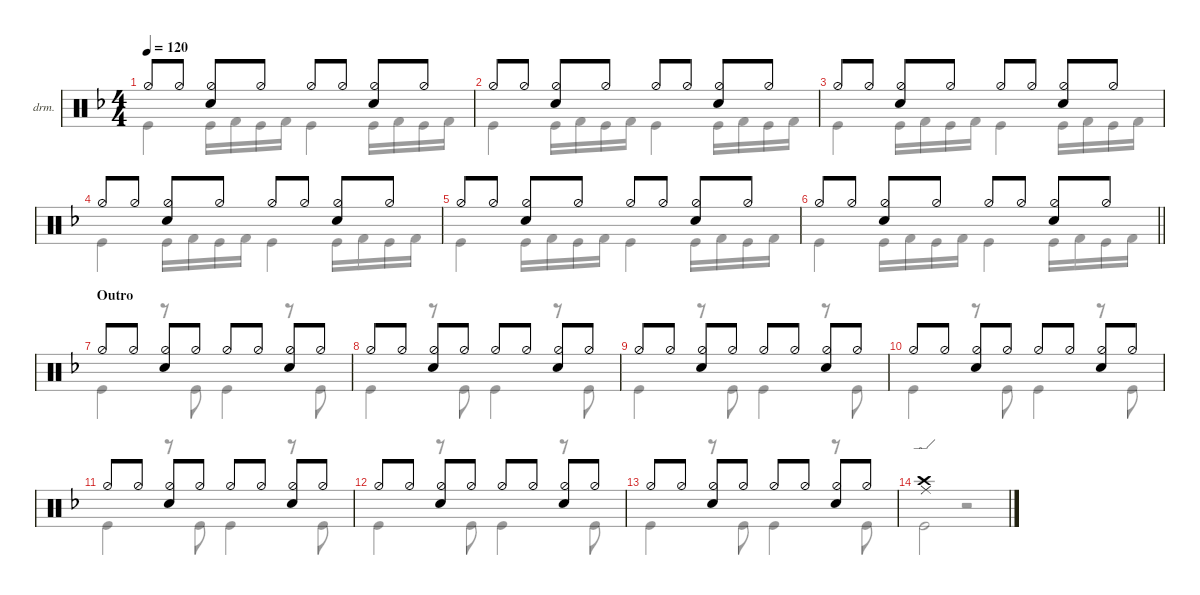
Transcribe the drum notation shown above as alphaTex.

\defaultSystemsLayout 4
\hideDynamics
\bracketExtendMode nobrackets
\firstSystemTrackNameOrientation horizontal
\track ("Drumkit" "drm.") {mute instrument percussion}
\staff {score}
\articulation defaults
\voice
\ts (4 4)
\tempo 120
\clef neutral
\ks dminor "Hi-Hat (half)"{acc forcenatural}.8{dy mf} "Hi-Hat (half)"{acc forcenatural}.8
("Hi-Hat (half)"{acc forcenatural} "Snare (hit) 2"{acc forcenatural}).8 "Hi-Hat (half)"{acc forcenatural}.8 "Hi-Hat (half)"{acc forcenatural}.8 "Hi-Hat (half)"{acc forcenatural}.8 ("Hi-Hat (half)"{acc forcenatural} "Snare (hit) 2"{acc forcenatural}).8 "Hi-Hat (half)"{acc forcenatural}.8 |
"Hi-Hat (half)"{acc forcenatural}.8 "Hi-Hat (half)"{acc forcenatural}.8 ("Hi-Hat (half)"{acc forcenatural} "Snare (hit) 2"{acc forcenatural}).8 "Hi-Hat (half)"{acc forcenatural}.8 "Hi-Hat (half)"{acc forcenatural}.8 "Hi-Hat (half)"{acc forcenatural}.8 ("Hi-Hat (half)"{acc forcenatural} "Snare (hit) 2"{acc forcenatural}).8 "Hi-Hat (half)"{acc forcenatural}.8 |
"Hi-Hat (half)"{acc forcenatural}.8 "Hi-Hat (half)"{acc forcenatural}.8 ("Hi-Hat (half)"{acc forcenatural} "Snare (hit) 2"{acc forcenatural}).8 "Hi-Hat (half)"{acc forcenatural}.8 "Hi-Hat (half)"{acc forcenatural}.8 "Hi-Hat (half)"{acc forcenatural}.8 ("Hi-Hat (half)"{acc forcenatural} "Snare (hit) 2"{acc forcenatural}).8 "Hi-Hat (half)"{acc forcenatural}.8 |
"Hi-Hat (half)"{acc forcenatural}.8 "Hi-Hat (half)"{acc forcenatural}.8 ("Hi-Hat (half)"{acc forcenatural} "Snare (hit) 2"{acc forcenatural}).8 "Hi-Hat (half)"{acc forcenatural}.8 "Hi-Hat (half)"{acc forcenatural}.8 "Hi-Hat (half)"{acc forcenatural}.8 ("Hi-Hat (half)"{acc forcenatural} "Snare (hit) 2"{acc forcenatural}).8 "Hi-Hat (half)"{acc forcenatural}.8 |
"Hi-Hat (half)"{acc forcenatural}.8 "Hi-Hat (half)"{acc forcenatural}.8 ("Hi-Hat (half)"{acc forcenatural} "Snare (hit) 2"{acc forcenatural}).8 "Hi-Hat (half)"{acc forcenatural}.8 "Hi-Hat (half)"{acc forcenatural}.8 "Hi-Hat (half)"{acc forcenatural}.8 ("Hi-Hat (half)"{acc forcenatural} "Snare (hit) 2"{acc forcenatural}).8 "Hi-Hat (half)"{acc forcenatural}.8 |
\barLineRight lightlight "Hi-Hat (half)"{acc forcenatural}.8 "Hi-Hat (half)"{acc forcenatural}.8
("Hi-Hat (half)"{acc forcenatural} "Snare (hit) 2"{acc forcenatural}).8 "Hi-Hat (half)"{acc forcenatural}.8 "Hi-Hat (half)"{acc forcenatural}.8 "Hi-Hat (half)"{acc forcenatural}.8 ("Hi-Hat (half)"{acc forcenatural} "Snare (hit) 2"{acc forcenatural}).8 "Hi-Hat (half)"{acc forcenatural}.8 |
\section ("" "Outro")
"Hi-Hat (half)"{acc forcenatural}.8 "Hi-Hat (half)"{acc forcenatural}.8 ("Hi-Hat (half)"{acc forcenatural} "Snare (hit) 2"{acc forcenatural}).8 "Hi-Hat (half)"{acc forcenatural}.8 "Hi-Hat (half)"{acc forcenatural}.8 "Hi-Hat (half)"{acc forcenatural}.8 ("Hi-Hat (half)"{acc forcenatural} "Snare (hit) 2"{acc forcenatural}).8 "Hi-Hat (half)"{acc forcenatural}.8 |
"Hi-Hat (half)"{acc forcenatural}.8 "Hi-Hat (half)"{acc forcenatural}.8 ("Hi-Hat (half)"{acc forcenatural} "Snare (hit) 2"{acc forcenatural}).8 "Hi-Hat (half)"{acc forcenatural}.8 "Hi-Hat (half)"{acc forcenatural}.8 "Hi-Hat (half)"{acc forcenatural}.8 ("Hi-Hat (half)"{acc forcenatural} "Snare (hit) 2"{acc forcenatural}).8 "Hi-Hat (half)"{acc forcenatural}.8 |
"Hi-Hat (half)"{acc forcenatural}.8 "Hi-Hat (half)"{acc forcenatural}.8 ("Hi-Hat (half)"{acc forcenatural} "Snare (hit) 2"{acc forcenatural}).8 "Hi-Hat (half)"{acc forcenatural}.8 "Hi-Hat (half)"{acc forcenatural}.8 "Hi-Hat (half)"{acc forcenatural}.8 ("Hi-Hat (half)"{acc forcenatural} "Snare (hit) 2"{acc forcenatural}).8 "Hi-Hat (half)"{acc forcenatural}.8 |
"Hi-Hat (half)"{acc forcenatural}.8 "Hi-Hat (half)"{acc forcenatural}.8 ("Hi-Hat (half)"{acc forcenatural} "Snare (hit) 2"{acc forcenatural}).8 "Hi-Hat (half)"{acc forcenatural}.8 "Hi-Hat (half)"{acc forcenatural}.8 "Hi-Hat (half)"{acc forcenatural}.8 ("Hi-Hat (half)"{acc forcenatural} "Snare (hit) 2"{acc forcenatural}).8 "Hi-Hat (half)"{acc forcenatural}.8 |
"Hi-Hat (half)"{acc forcenatural}.8 "Hi-Hat (half)"{acc forcenatural}.8 ("Hi-Hat (half)"{acc forcenatural} "Snare (hit) 2"{acc forcenatural}).8 "Hi-Hat (half)"{acc forcenatural}.8 "Hi-Hat (half)"{acc forcenatural}.8 "Hi-Hat (half)"{acc forcenatural}.8 ("Hi-Hat (half)"{acc forcenatural} "Snare (hit) 2"{acc forcenatural}).8 "Hi-Hat (half)"{acc forcenatural}.8 |
"Hi-Hat (half)"{acc forcenatural}.8 "Hi-Hat (half)"{acc forcenatural}.8 ("Hi-Hat (half)"{acc forcenatural} "Snare (hit) 2"{acc forcenatural}).8 "Hi-Hat (half)"{acc forcenatural}.8 "Hi-Hat (half)"{acc forcenatural}.8 "Hi-Hat (half)"{acc forcenatural}.8 ("Hi-Hat (half)"{acc forcenatural} "Snare (hit) 2"{acc forcenatural}).8 "Hi-Hat (half)"{acc forcenatural}.8 |
"Hi-Hat (half)"{acc forcenatural}.8 "Hi-Hat (half)"{acc forcenatural}.8 ("Hi-Hat (half)"{acc forcenatural} "Snare (hit) 2"{acc forcenatural}).8 "Hi-Hat (half)"{acc forcenatural}.8 "Hi-Hat (half)"{acc forcenatural}.8 "Hi-Hat (half)"{acc forcenatural}.8 ("Hi-Hat (half)"{acc forcenatural} "Snare (hit) 2"{acc forcenatural}).8 "Hi-Hat (half)"{acc forcenatural}.8 |
("Ride (edge)"{acc forcenatural} "Crash high (hit)"{acc forcenatural}).1
\voice
\clef neutral
\ottava regular
\simile none
\ks dminor "Kick (hit)"{acc forcenatural}.4{dy mf} "Kick (hit)"{acc forcenatural}.16 "Kick (hit) 2"{acc forcenatural}.16 "Kick (hit)"{acc forcenatural}.16 "Kick (hit) 2"{acc forcenatural}.16 "Kick (hit)"{acc forcenatural}.4 "Kick (hit)"{acc forcenatural}.16 "Kick (hit) 2"{acc forcenatural}.16 "Kick (hit)"{acc forcenatural}.16 "Kick (hit) 2"{acc forcenatural}.16
|
"Kick (hit)"{acc forcenatural}.4 "Kick (hit)"{acc forcenatural}.16 "Kick (hit) 2"{acc forcenatural}.16 "Kick (hit)"{acc forcenatural}.16 "Kick (hit) 2"{acc forcenatural}.16 "Kick (hit)"{acc forcenatural}.4 "Kick (hit)"{acc forcenatural}.16 "Kick (hit) 2"{acc forcenatural}.16 "Kick (hit)"{acc forcenatural}.16 "Kick (hit) 2"{acc forcenatural}.16 |
"Kick (hit)"{acc forcenatural}.4 "Kick (hit)"{acc forcenatural}.16 "Kick (hit) 2"{acc forcenatural}.16 "Kick (hit)"{acc forcenatural}.16 "Kick (hit) 2"{acc forcenatural}.16 "Kick (hit)"{acc forcenatural}.4 "Kick (hit)"{acc forcenatural}.16 "Kick (hit) 2"{acc forcenatural}.16 "Kick (hit)"{acc forcenatural}.16 "Kick (hit) 2"{acc forcenatural}.16 |
"Kick (hit)"{acc forcenatural}.4 "Kick (hit)"{acc forcenatural}.16 "Kick (hit) 2"{acc forcenatural}.16 "Kick (hit)"{acc forcenatural}.16 "Kick (hit) 2"{acc forcenatural}.16 "Kick (hit)"{acc forcenatural}.4 "Kick (hit)"{acc forcenatural}.16 "Kick (hit) 2"{acc forcenatural}.16 "Kick (hit)"{acc forcenatural}.16 "Kick (hit) 2"{acc forcenatural}.16 |
"Kick (hit)"{acc forcenatural}.4 "Kick (hit)"{acc forcenatural}.16 "Kick (hit) 2"{acc forcenatural}.16 "Kick (hit)"{acc forcenatural}.16 "Kick (hit) 2"{acc forcenatural}.16 "Kick (hit)"{acc forcenatural}.4 "Kick (hit)"{acc forcenatural}.16 "Kick (hit) 2"{acc forcenatural}.16 "Kick (hit)"{acc forcenatural}.16 "Kick (hit) 2"{acc forcenatural}.16 |
\barLineRight lightlight "Kick (hit)"{acc forcenatural}.4 "Kick (hit)"{acc forcenatural}.16 "Kick (hit) 2"{acc forcenatural}.16 "Kick (hit)"{acc forcenatural}.16 "Kick (hit) 2"{acc forcenatural}.16 "Kick (hit)"{acc forcenatural}.4 "Kick (hit)"{acc forcenatural}.16 "Kick (hit) 2"{acc forcenatural}.16 "Kick (hit)"{acc forcenatural}.16 "Kick (hit) 2"{acc forcenatural}.16
|
"Kick (hit)"{acc forcenatural}.4 r.8 "Kick (hit)"{acc forcenatural}.8 "Kick (hit)"{acc forcenatural}.4 r.8 "Kick (hit)"{acc forcenatural}.8 |
"Kick (hit)"{acc forcenatural}.4 r.8 "Kick (hit)"{acc forcenatural}.8 "Kick (hit)"{acc forcenatural}.4 r.8 "Kick (hit)"{acc forcenatural}.8 |
"Kick (hit)"{acc forcenatural}.4 r.8 "Kick (hit)"{acc forcenatural}.8 "Kick (hit)"{acc forcenatural}.4 r.8 "Kick (hit)"{acc forcenatural}.8 |
"Kick (hit)"{acc forcenatural}.4 r.8 "Kick (hit)"{acc forcenatural}.8 "Kick (hit)"{acc forcenatural}.4 r.8 "Kick (hit)"{acc forcenatural}.8 |
"Kick (hit)"{acc forcenatural}.4 r.8 "Kick (hit)"{acc forcenatural}.8 "Kick (hit)"{acc forcenatural}.4 r.8 "Kick (hit)"{acc forcenatural}.8 |
"Kick (hit)"{acc forcenatural}.4 r.8 "Kick (hit)"{acc forcenatural}.8 "Kick (hit)"{acc forcenatural}.4 r.8 "Kick (hit)"{acc forcenatural}.8 |
"Kick (hit)"{acc forcenatural}.4 r.8 "Kick (hit)"{acc forcenatural}.8 "Kick (hit)"{acc forcenatural}.4 r.8 "Kick (hit)"{acc forcenatural}.8 |
"Kick (hit)"{acc forcenatural}.2 r.2
